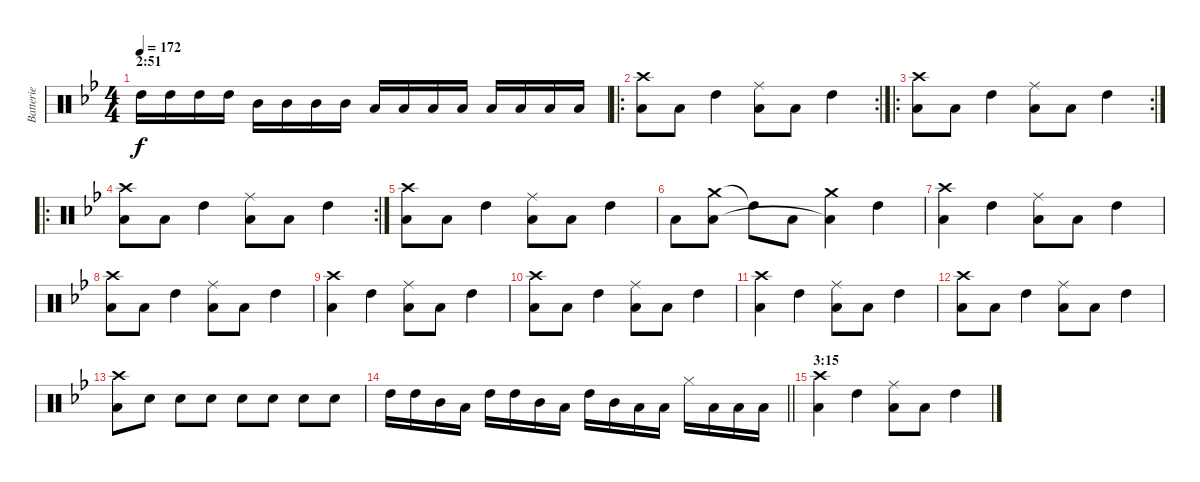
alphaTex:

\track ("Batterie" "Batterie") {instrument percussion}
\staff {score}
\articulation defaults
\ts (4 4)
\section ("" "2:51")
\tempo 172
\clef neutral
\ks gminor "High Tom (hit)".16{dy f} "High Tom (hit)".16 "High Tom (hit)".16 "High Tom (hit)".16 "Mid Tom (hit)".16 "Mid Tom (hit)".16 "Mid Tom (hit)".16 "Mid Tom (hit)".16 "Low Tom (hit)".16 "Low Tom (hit)".16 "Low Tom (hit)".16 "Low Tom (hit)".16 "Low Floor Tom (hit)".16 "Low Floor Tom (hit)".16 "Low Floor Tom (hit)".16 "Low Floor Tom (hit)".16
|
\ro
\rc 2
("Crash high (hit)" "Low Floor Tom (hit)").8 "Low Floor Tom (hit)".8 "High Tom (hit)".4 ("Ride (middle)" "Low Floor Tom (hit)").8 "Low Floor Tom (hit)".8 "High Tom (hit)".4 |
\ro
\rc 2
("Crash high (hit)" "Low Floor Tom (hit)").8 "Low Floor Tom (hit)".8 "High Tom (hit)".4 ("Ride (middle)" "Low Floor Tom (hit)").8 "Low Floor Tom (hit)".8 "High Tom (hit)".4 |
\ro
\rc 2
("Crash high (hit)" "Low Floor Tom (hit)").8 "Low Floor Tom (hit)".8 "High Tom (hit)".4 ("Ride (middle)" "Low Floor Tom (hit)").8 "Low Floor Tom (hit)".8 "High Tom (hit)".4 |
("Crash high (hit)" "Low Floor Tom (hit)").8 "Low Floor Tom (hit)".8 "High Tom (hit)".4 ("Ride (middle)" "Low Floor Tom (hit)").8 "Low Floor Tom (hit)".8 "High Tom (hit)".4 |
"Low Floor Tom (hit)".8 ("Crash medium (hit)" "Low Floor Tom (hit)").8 "High Tom (hit)"{t}.8 "Low Floor Tom (hit)".8 ("Crash medium (hit)" "Low Floor Tom (hit)"{t}).4 "High Tom (hit)".4 |
("Crash high (hit)" "Low Floor Tom (hit)").4 "High Tom (hit)".4 ("Ride (middle)" "Low Floor Tom (hit)").8 "Low Floor Tom (hit)".8 "High Tom (hit)".4 |
("Crash high (hit)" "Low Floor Tom (hit)").8 "Low Floor Tom (hit)".8 "High Tom (hit)".4 ("Ride (middle)" "Low Floor Tom (hit)").8 "Low Floor Tom (hit)".8 "High Tom (hit)".4 |
("Crash high (hit)" "Low Floor Tom (hit)").4 "High Tom (hit)".4 ("Ride (middle)" "Low Floor Tom (hit)").8 "Low Floor Tom (hit)".8 "High Tom (hit)".4 |
("Crash high (hit)" "Low Floor Tom (hit)").8 "Low Floor Tom (hit)".8 "High Tom (hit)".4 ("Ride (middle)" "Low Floor Tom (hit)").8 "Low Floor Tom (hit)".8 "High Tom (hit)".4 |
("Crash high (hit)" "Low Floor Tom (hit)").4 "High Tom (hit)".4 ("Ride (middle)" "Low Floor Tom (hit)").8 "Low Floor Tom (hit)".8 "High Tom (hit)".4 |
("Crash high (hit)" "Low Floor Tom (hit)").8 "Low Floor Tom (hit)".8 "High Tom (hit)".4 ("Ride (middle)" "Low Floor Tom (hit)").8 "Low Floor Tom (hit)".8 "High Tom (hit)".4 |
("Crash high (hit)" "Low Floor Tom (hit)").8 "Snare (hit) 2".8 "Snare (hit) 2".8 "Snare (hit) 2".8 "Snare (hit) 2".8 "Snare (hit) 2".8 "Snare (hit) 2".8 "Snare (hit) 2".8 |
\barLineRight lightlight "High Tom (hit)".16 "High Tom (hit)".16 "Mid Tom (hit)".16 "Low Tom (hit)".16 "High Tom (hit)".16 "High Tom (hit)".16 "Mid Tom (hit)".16 "Low Tom (hit)".16 "High Tom (hit)".16 "Mid Tom (hit)".16 "Low Tom (hit)".16 "Low Floor Tom (hit)".16 "Hi-Hat (closed)".16 "Low Floor Tom (hit)".16 "Low Floor Tom (hit)".16 "Low Floor Tom (hit)".16
|
\section ("" "3:15")
("Crash high (hit)" "Low Floor Tom (hit)").4 "High Tom (hit)".4 ("Ride (middle)" "Low Floor Tom (hit)").8 "Low Floor Tom (hit)".8 "High Tom (hit)".4
